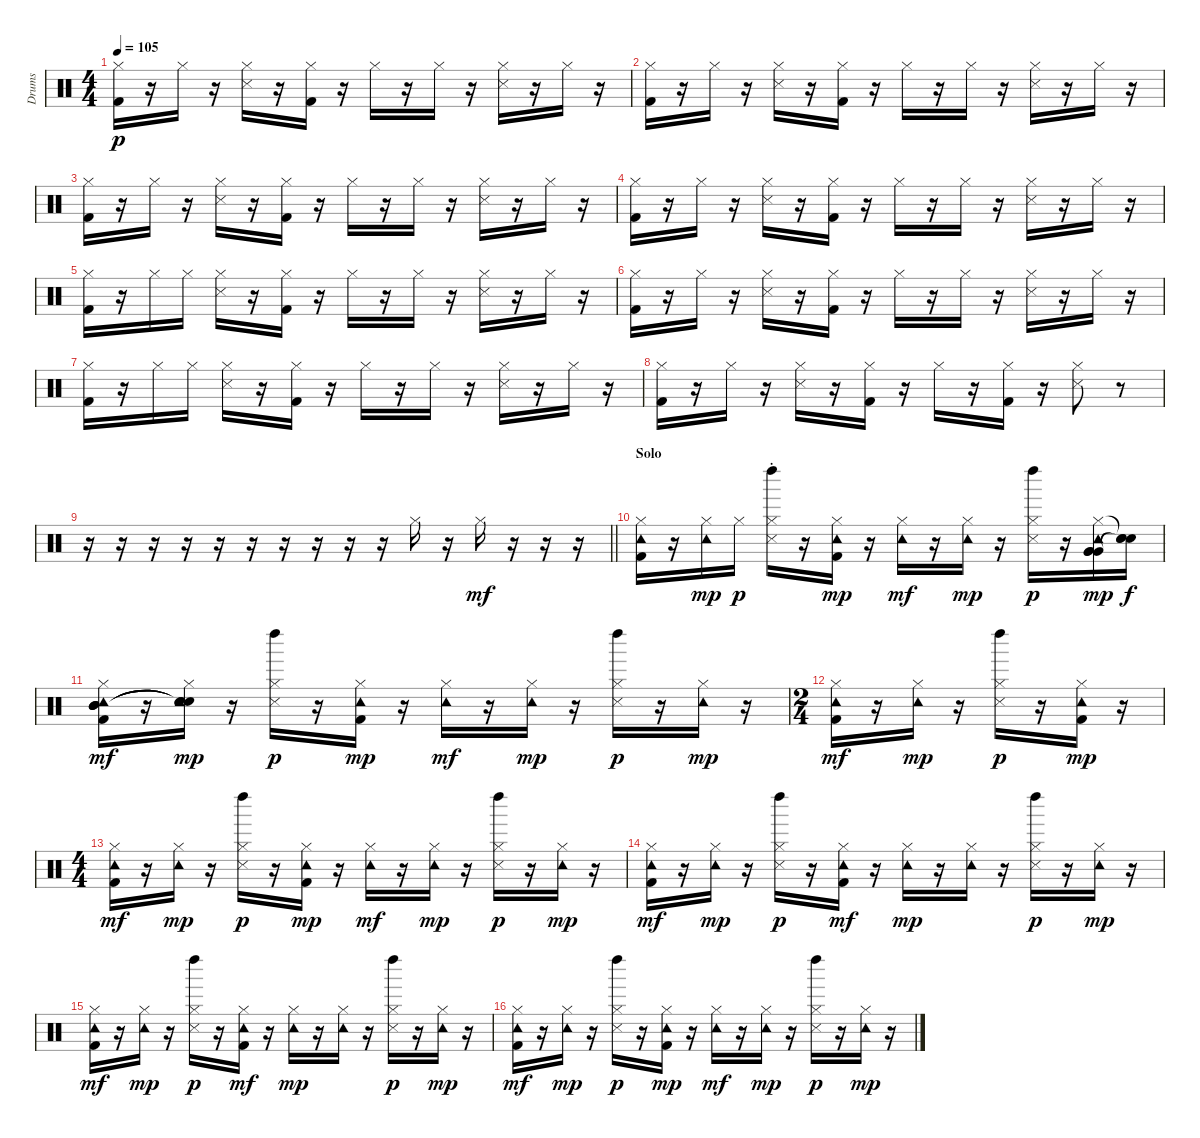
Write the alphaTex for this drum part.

\track ("Drums" "Drums") {instrument percussion}
\staff {score}
\articulation defaults
\ts (4 4)
\tempo 105
\clef neutral
\ks c
("Hi-Hat (closed)" "Kick (hit) 2").16{dy p} r.16 "Hi-Hat (closed)".16 r.16 ("Hi-Hat (closed)" "Snare (side stick) 3").16 r.16 ("Hi-Hat (closed)" "Kick (hit) 2").16 r.16 "Hi-Hat (closed)".16 r.16 "Hi-Hat (closed)".16 r.16 ("Hi-Hat (closed)" "Snare (side stick) 3").16 r.16 "Hi-Hat (closed)".16 r.16 |
("Hi-Hat (closed)" "Kick (hit) 2").16 r.16 "Hi-Hat (closed)".16 r.16 ("Hi-Hat (closed)" "Snare (side stick) 3").16 r.16 ("Hi-Hat (closed)" "Kick (hit) 2").16 r.16 "Hi-Hat (closed)".16 r.16 "Hi-Hat (closed)".16 r.16 ("Hi-Hat (closed)" "Snare (side stick) 3").16 r.16 "Hi-Hat (closed)".16 r.16 |
("Hi-Hat (closed)" "Kick (hit) 2").16 r.16 "Hi-Hat (closed)".16 r.16 ("Hi-Hat (closed)" "Snare (side stick) 3").16 r.16 ("Hi-Hat (closed)" "Kick (hit) 2").16 r.16 "Hi-Hat (closed)".16 r.16 "Hi-Hat (closed)".16 r.16 ("Hi-Hat (closed)" "Snare (side stick) 3").16 r.16 "Hi-Hat (closed)".16 r.16 |
("Hi-Hat (closed)" "Kick (hit) 2").16 r.16 "Hi-Hat (closed)".16 r.16 ("Hi-Hat (closed)" "Snare (side stick) 3").16 r.16 ("Hi-Hat (closed)" "Kick (hit) 2").16 r.16 "Hi-Hat (closed)".16 r.16 "Hi-Hat (closed)".16 r.16 ("Hi-Hat (closed)" "Snare (side stick) 3").16 r.16 "Hi-Hat (closed)".16 r.16 |
("Hi-Hat (closed)" "Kick (hit) 2").16 r.16 "Hi-Hat (closed)".16 "Hi-Hat (closed)".16 ("Hi-Hat (closed)" "Snare (side stick) 3").16 r.16 ("Hi-Hat (closed)" "Kick (hit) 2").16 r.16 "Hi-Hat (closed)".16 r.16 "Hi-Hat (closed)".16 r.16 ("Hi-Hat (closed)" "Snare (side stick) 3").16 r.16 "Hi-Hat (closed)".16 r.16 |
("Hi-Hat (closed)" "Kick (hit) 2").16 r.16 "Hi-Hat (closed)".16 r.16 ("Hi-Hat (closed)" "Snare (side stick) 3").16 r.16 ("Hi-Hat (closed)" "Kick (hit) 2").16 r.16 "Hi-Hat (closed)".16 r.16 "Hi-Hat (closed)".16 r.16 ("Hi-Hat (closed)" "Snare (side stick) 3").16 r.16 "Hi-Hat (closed)".16 r.16 |
("Hi-Hat (closed)" "Kick (hit) 2").16 r.16 "Hi-Hat (closed)".16 "Hi-Hat (closed)".16 ("Hi-Hat (closed)" "Snare (side stick) 3").16 r.16 ("Hi-Hat (closed)" "Kick (hit) 2").16 r.16 "Hi-Hat (closed)".16 r.16 "Hi-Hat (closed)".16 r.16 ("Hi-Hat (closed)" "Snare (side stick) 3").16 r.16 "Hi-Hat (closed)".16 r.16 |
("Hi-Hat (closed)" "Kick (hit) 2").16 r.16 "Hi-Hat (closed)".16 r.16 ("Hi-Hat (closed)" "Snare (side stick) 3").16 r.16 ("Hi-Hat (closed)" "Kick (hit) 2").16 r.16 "Hi-Hat (closed)".16 r.16 ("Hi-Hat (closed)" "Kick (hit) 2").16 r.16 ("Hi-Hat (closed)" "Snare (side stick) 3").8 r.8 |
\barLineRight lightlight
r.16 r.16 r.16 r.16 r.16 r.16 r.16 r.16 r.16 r.16 "Hi-Hat (closed)".16 r.16 "Hi-Hat (closed)".16{dy mf} r.16 r.16 r.16 |
\section ("" "Solo")
("Hi-Hat (closed)" "Tambourine (hit)" "Kick (hit) 2").16 r.16 ("Hi-Hat (closed)" "Tambourine (hit)").16{dy mp} "Hi-Hat (closed)".16{dy p} ("Hi-Hat (closed)" "Snare (side stick) 3" "Left Maraca (hit)"{st}).16 r.16 ("Hi-Hat (closed)" "Tambourine (hit)" "Kick (hit) 2").16{dy mp} r.16 ("Hi-Hat (closed)" "Tambourine (hit)").16{dy mf} r.16 ("Hi-Hat (closed)" "Tambourine (hit)").16{dy mp} r.16 ("Hi-Hat (closed)" "Snare (side stick) 3" "Left Maraca (hit)").16{dy p} r.16 ("Hi-Hat (closed)" "Very Low Tom (hit)" "Very Low Tom (hit)" "Very Low Tom (hit)" "Tambourine (hit)").16{dy mp} ("Snare (hit)"{t} "Snare (hit)"{t} "Snare (hit)"{t}).16{dy f} |
("Hi-Hat (closed)" "Mid Tom (hit)" "Mid Tom (hit)" "Mid Tom (hit)" "Tambourine (hit)" "Kick (hit) 2").16{dy mf} r.16 ("Hi-Hat (closed)" "Snare (hit)"{t} "Snare (hit)"{t} "Snare (hit)"{t} "Tambourine (hit)").16{dy mp} r.16 ("Hi-Hat (closed)" "Snare (side stick) 3" "Left Maraca (hit)").16{dy p} r.16 ("Hi-Hat (closed)" "Tambourine (hit)" "Kick (hit) 2").16{dy mp} r.16 ("Hi-Hat (closed)" "Tambourine (hit)").16{dy mf} r.16 ("Hi-Hat (closed)" "Tambourine (hit)").16{dy mp} r.16 ("Hi-Hat (closed)" "Snare (side stick) 3" "Left Maraca (hit)").16{dy p} r.16 ("Hi-Hat (closed)" "Tambourine (hit)").16{dy mp} r.16 |
\ts (2 4)
("Hi-Hat (closed)" "Tambourine (hit)" "Kick (hit) 2").16{dy mf} r.16 ("Hi-Hat (closed)" "Tambourine (hit)").16{dy mp} r.16 ("Hi-Hat (closed)" "Snare (side stick) 3" "Left Maraca (hit)").16{dy p} r.16 ("Hi-Hat (closed)" "Tambourine (hit)" "Kick (hit) 2").16{dy mp} r.16 |
\ts (4 4)
("Hi-Hat (closed)" "Tambourine (hit)" "Kick (hit) 2").16{dy mf} r.16 ("Hi-Hat (closed)" "Tambourine (hit)").16{dy mp} r.16 ("Hi-Hat (closed)" "Snare (side stick) 3" "Left Maraca (hit)").16{dy p} r.16 ("Hi-Hat (closed)" "Tambourine (hit)" "Kick (hit) 2").16{dy mp} r.16 ("Hi-Hat (closed)" "Tambourine (hit)").16{dy mf} r.16 ("Hi-Hat (closed)" "Tambourine (hit)").16{dy mp} r.16 ("Hi-Hat (closed)" "Snare (side stick) 3" "Left Maraca (hit)").16{dy p} r.16 ("Hi-Hat (closed)" "Tambourine (hit)").16{dy mp} r.16 |
("Hi-Hat (closed)" "Tambourine (hit)" "Kick (hit) 2").16{dy mf} r.16 ("Hi-Hat (closed)" "Tambourine (hit)").16{dy mp} r.16 ("Hi-Hat (closed)" "Snare (side stick) 3" "Left Maraca (hit)").16{dy p} r.16 ("Hi-Hat (closed)" "Tambourine (hit)" "Kick (hit) 2").16{dy mf} r.16 ("Hi-Hat (closed)" "Tambourine (hit)").16{dy mp} r.16 ("Hi-Hat (closed)" "Tambourine (hit)").16 r.16 ("Hi-Hat (closed)" "Snare (side stick) 3" "Left Maraca (hit)").16{dy p} r.16 ("Hi-Hat (closed)" "Tambourine (hit)").16{dy mp} r.16 |
("Hi-Hat (closed)" "Tambourine (hit)" "Kick (hit) 2").16{dy mf} r.16 ("Hi-Hat (closed)" "Tambourine (hit)").16{dy mp} r.16 ("Hi-Hat (closed)" "Snare (side stick) 3" "Left Maraca (hit)").16{dy p} r.16 ("Hi-Hat (closed)" "Tambourine (hit)" "Kick (hit) 2").16{dy mf} r.16 ("Hi-Hat (closed)" "Tambourine (hit)").16{dy mp} r.16 ("Hi-Hat (closed)" "Tambourine (hit)").16 r.16 ("Hi-Hat (closed)" "Snare (side stick) 3" "Left Maraca (hit)").16{dy p} r.16 ("Hi-Hat (closed)" "Tambourine (hit)").16{dy mp} r.16 |
("Hi-Hat (closed)" "Tambourine (hit)" "Kick (hit) 2").16{dy mf} r.16 ("Hi-Hat (closed)" "Tambourine (hit)").16{dy mp} r.16 ("Hi-Hat (closed)" "Snare (side stick) 3" "Left Maraca (hit)").16{dy p} r.16 ("Hi-Hat (closed)" "Tambourine (hit)" "Kick (hit) 2").16{dy mp} r.16 ("Hi-Hat (closed)" "Tambourine (hit)").16{dy mf} r.16 ("Hi-Hat (closed)" "Tambourine (hit)").16{dy mp} r.16 ("Hi-Hat (closed)" "Snare (side stick) 3" "Left Maraca (hit)").16{dy p} r.16 ("Hi-Hat (closed)" "Tambourine (hit)").16{dy mp} r.16
